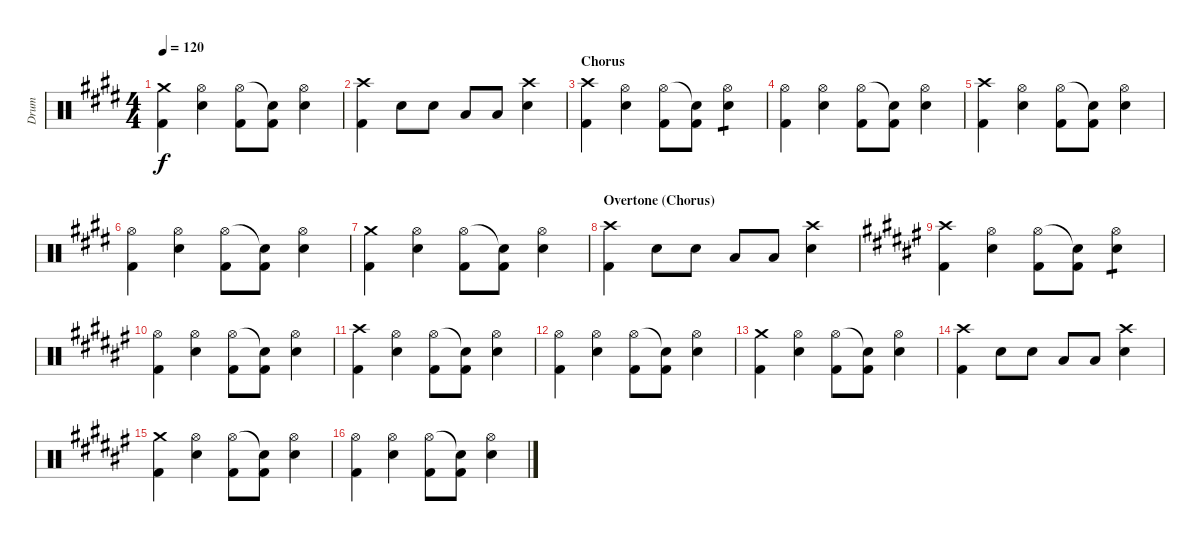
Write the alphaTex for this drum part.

\track ("Drum" "Drum") {instrument percussion}
\staff {score}
\articulation defaults
\ts (4 4)
\tempo 120
\clef neutral
\ks e
("Crash medium (hit)" "Kick (hit) 2").4{dy f} ("Hi-Hat (open)" "Electric Snare (hit)").4 ("Hi-Hat (open)" "Kick (hit) 2").8 ("Snare (hit)"{t} "Kick (hit) 2").8 ("Hi-Hat (open)" "Electric Snare (hit)").4 |
("Crash high (hit)" "Kick (hit) 2").4 "Electric Snare (hit)".8 "Electric Snare (hit)".8 "Low Tom (hit)".8 "Low Tom (hit)".8 ("Crash high (hit)" "Electric Snare (hit)").4 |
\section ("" "Chorus")
("Crash high (hit)" "Kick (hit) 2").4 ("Hi-Hat (open)" "Electric Snare (hit)").4 ("Hi-Hat (open)" "Kick (hit) 2").8 ("Snare (hit)"{t} "Kick (hit) 2").8 ("Hi-Hat (open)" "Electric Snare (hit)").4{tp 1} |
("Hi-Hat (open)" "Kick (hit) 2").4 ("Hi-Hat (open)" "Electric Snare (hit)").4 ("Hi-Hat (open)" "Kick (hit) 2").8 ("Snare (hit)"{t} "Kick (hit) 2").8 ("Hi-Hat (open)" "Electric Snare (hit)").4 |
("Crash high (hit)" "Kick (hit) 2").4 ("Hi-Hat (open)" "Electric Snare (hit)").4 ("Hi-Hat (open)" "Kick (hit) 2").8 ("Snare (hit)"{t} "Kick (hit) 2").8 ("Hi-Hat (open)" "Electric Snare (hit)").4 |
("Hi-Hat (open)" "Kick (hit) 2").4 ("Hi-Hat (open)" "Electric Snare (hit)").4 ("Hi-Hat (open)" "Kick (hit) 2").8 ("Snare (hit)"{t} "Kick (hit) 2").8 ("Hi-Hat (open)" "Electric Snare (hit)").4 |
("Crash medium (hit)" "Kick (hit) 2").4 ("Hi-Hat (open)" "Electric Snare (hit)").4 ("Hi-Hat (open)" "Kick (hit) 2").8 ("Snare (hit)"{t} "Kick (hit) 2").8 ("Hi-Hat (open)" "Electric Snare (hit)").4 |
\section ("" "Overtone (Chorus)")
("Crash high (hit)" "Kick (hit) 2").4 "Electric Snare (hit)".8 "Electric Snare (hit)".8 "Low Tom (hit)".8 "Low Tom (hit)".8 ("Crash high (hit)" "Electric Snare (hit)").4 |
\ks f#
("Crash high (hit)" "Kick (hit) 2").4 ("Hi-Hat (open)" "Electric Snare (hit)").4 ("Hi-Hat (open)" "Kick (hit) 2").8 ("Snare (hit)"{t} "Kick (hit) 2").8 ("Hi-Hat (open)" "Electric Snare (hit)").4{tp 1} |
("Hi-Hat (open)" "Kick (hit) 2").4 ("Hi-Hat (open)" "Electric Snare (hit)").4 ("Hi-Hat (open)" "Kick (hit) 2").8 ("Snare (hit)"{t} "Kick (hit) 2").8 ("Hi-Hat (open)" "Electric Snare (hit)").4 |
("Crash high (hit)" "Kick (hit) 2").4 ("Hi-Hat (open)" "Electric Snare (hit)").4 ("Hi-Hat (open)" "Kick (hit) 2").8 ("Snare (hit)"{t} "Kick (hit) 2").8 ("Hi-Hat (open)" "Electric Snare (hit)").4 |
("Hi-Hat (open)" "Kick (hit) 2").4 ("Hi-Hat (open)" "Electric Snare (hit)").4 ("Hi-Hat (open)" "Kick (hit) 2").8 ("Snare (hit)"{t} "Kick (hit) 2").8 ("Hi-Hat (open)" "Electric Snare (hit)").4 |
("Crash medium (hit)" "Kick (hit) 2").4 ("Hi-Hat (open)" "Electric Snare (hit)").4 ("Hi-Hat (open)" "Kick (hit) 2").8 ("Snare (hit)"{t} "Kick (hit) 2").8 ("Hi-Hat (open)" "Electric Snare (hit)").4 |
("Crash high (hit)" "Kick (hit) 2").4 "Electric Snare (hit)".8 "Electric Snare (hit)".8 "Low Tom (hit)".8 "Low Tom (hit)".8 ("Crash high (hit)" "Electric Snare (hit)").4 |
("Crash medium (hit)" "Kick (hit) 2").4 ("Hi-Hat (open)" "Electric Snare (hit)").4 ("Hi-Hat (open)" "Kick (hit) 2").8 ("Snare (hit)"{t} "Kick (hit) 2").8 ("Hi-Hat (open)" "Electric Snare (hit)").4 |
("Hi-Hat (open)" "Kick (hit) 2").4 ("Hi-Hat (open)" "Electric Snare (hit)").4 ("Hi-Hat (open)" "Kick (hit) 2").8 ("Snare (hit)"{t} "Kick (hit) 2").8 ("Hi-Hat (open)" "Electric Snare (hit)").4
